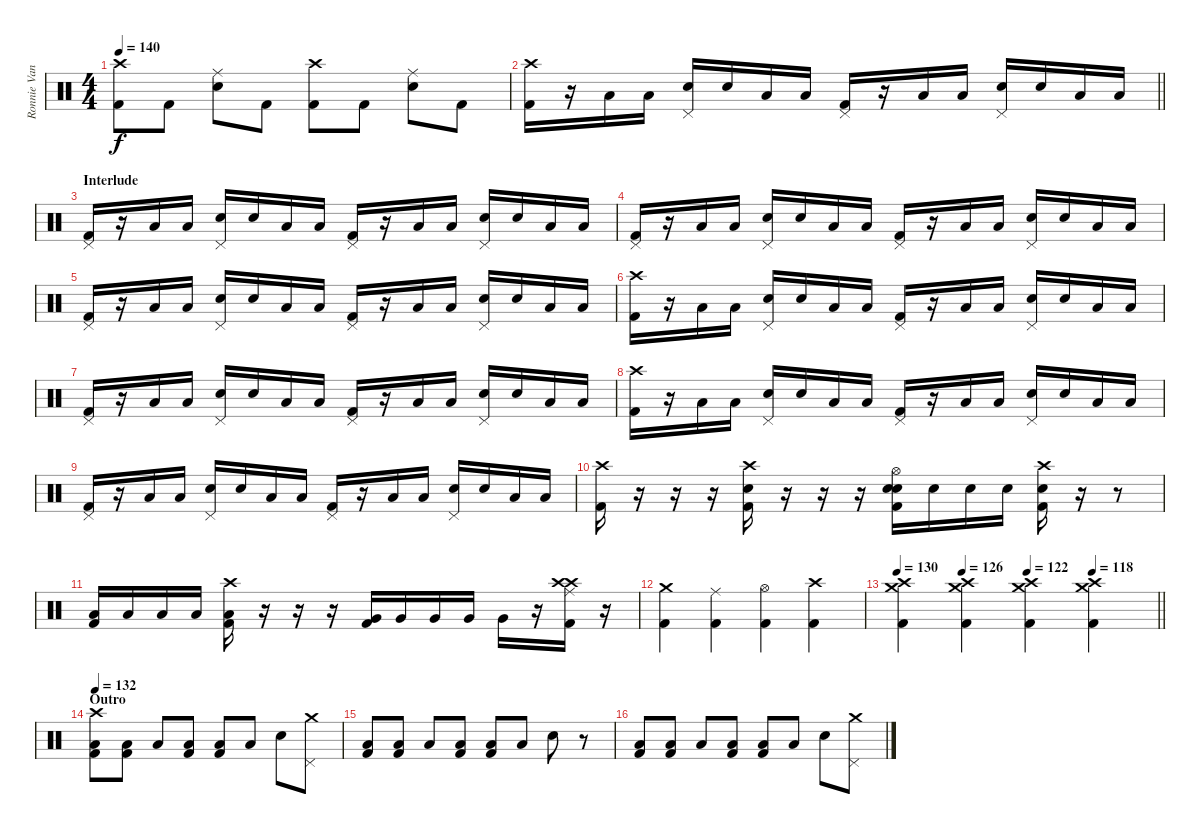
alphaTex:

\track ("Ronnie Vannucci Jr.'s drums" "Ronnie Van") {instrument percussion}
\staff {score}
\articulation defaults
\ts (4 4)
\tempo 140
\clef neutral
\ks c
("Crash high (hit)" "Kick (hit) 2").8{dy f} "Kick (hit) 2".8 ("Electric Snare (hit)" "Ride (middle)").8 "Kick (hit) 2".8 ("Crash high (hit)" "Kick (hit) 2").8 "Kick (hit) 2".8 ("Electric Snare (hit)" "Ride (middle)").8 "Kick (hit) 2".8 |
\barLineRight lightlight
("Crash high (hit)" "Kick (hit) 2").16 r.16 "Low Tom (hit)".16 "Low Tom (hit)".16 ("Pedal Hi-Hat (hit)" "Electric Snare (hit)").16 "Electric Snare (hit)".16 "Low Floor Tom (hit)".16 "Low Floor Tom (hit)".16 ("Pedal Hi-Hat (hit)" "Kick (hit) 2").16 r.16 "Low Tom (hit)".16 "Low Tom (hit)".16 ("Pedal Hi-Hat (hit)" "Electric Snare (hit)").16 "Electric Snare (hit)".16 "Low Floor Tom (hit)".16 "Low Floor Tom (hit)".16 |
\section ("" "Interlude")
("Pedal Hi-Hat (hit)" "Kick (hit) 2").16 r.16 "Low Tom (hit)".16 "Low Tom (hit)".16 ("Pedal Hi-Hat (hit)" "Electric Snare (hit)").16 "Electric Snare (hit)".16 "Low Floor Tom (hit)".16 "Low Floor Tom (hit)".16 ("Pedal Hi-Hat (hit)" "Kick (hit) 2").16 r.16 "Low Tom (hit)".16 "Low Tom (hit)".16 ("Pedal Hi-Hat (hit)" "Electric Snare (hit)").16 "Electric Snare (hit)".16 "Low Floor Tom (hit)".16 "Low Floor Tom (hit)".16 |
("Pedal Hi-Hat (hit)" "Kick (hit) 2").16 r.16 "Low Tom (hit)".16 "Low Tom (hit)".16 ("Pedal Hi-Hat (hit)" "Electric Snare (hit)").16 "Electric Snare (hit)".16 "Low Floor Tom (hit)".16 "Low Floor Tom (hit)".16 ("Pedal Hi-Hat (hit)" "Kick (hit) 2").16 r.16 "Low Tom (hit)".16 "Low Tom (hit)".16 ("Pedal Hi-Hat (hit)" "Electric Snare (hit)").16 "Electric Snare (hit)".16 "Low Floor Tom (hit)".16 "Low Floor Tom (hit)".16 |
("Pedal Hi-Hat (hit)" "Kick (hit) 2").16 r.16 "Low Tom (hit)".16 "Low Tom (hit)".16 ("Pedal Hi-Hat (hit)" "Electric Snare (hit)").16 "Electric Snare (hit)".16 "Low Floor Tom (hit)".16 "Low Floor Tom (hit)".16 ("Pedal Hi-Hat (hit)" "Kick (hit) 2").16 r.16 "Low Tom (hit)".16 "Low Tom (hit)".16 ("Pedal Hi-Hat (hit)" "Electric Snare (hit)").16 "Electric Snare (hit)".16 "Low Floor Tom (hit)".16 "Low Floor Tom (hit)".16 |
("Crash high (hit)" "Kick (hit) 2").16 r.16 "Low Tom (hit)".16 "Low Tom (hit)".16 ("Pedal Hi-Hat (hit)" "Electric Snare (hit)").16 "Electric Snare (hit)".16 "Low Floor Tom (hit)".16 "Low Floor Tom (hit)".16 ("Pedal Hi-Hat (hit)" "Kick (hit) 2").16 r.16 "Low Tom (hit)".16 "Low Tom (hit)".16 ("Pedal Hi-Hat (hit)" "Electric Snare (hit)").16 "Electric Snare (hit)".16 "Low Floor Tom (hit)".16 "Low Floor Tom (hit)".16 |
("Pedal Hi-Hat (hit)" "Kick (hit) 2").16 r.16 "Low Tom (hit)".16 "Low Tom (hit)".16 ("Pedal Hi-Hat (hit)" "Electric Snare (hit)").16 "Electric Snare (hit)".16 "Low Floor Tom (hit)".16 "Low Floor Tom (hit)".16 ("Pedal Hi-Hat (hit)" "Kick (hit) 2").16 r.16 "Low Tom (hit)".16 "Low Tom (hit)".16 ("Pedal Hi-Hat (hit)" "Electric Snare (hit)").16 "Electric Snare (hit)".16 "Low Floor Tom (hit)".16 "Low Floor Tom (hit)".16 |
("Crash high (hit)" "Kick (hit) 2").16 r.16 "Low Tom (hit)".16 "Low Tom (hit)".16 ("Pedal Hi-Hat (hit)" "Electric Snare (hit)").16 "Electric Snare (hit)".16 "Low Floor Tom (hit)".16 "Low Floor Tom (hit)".16 ("Pedal Hi-Hat (hit)" "Kick (hit) 2").16 r.16 "Low Tom (hit)".16 "Low Tom (hit)".16 ("Pedal Hi-Hat (hit)" "Electric Snare (hit)").16 "Electric Snare (hit)".16 "Low Floor Tom (hit)".16 "Low Floor Tom (hit)".16 |
("Pedal Hi-Hat (hit)" "Kick (hit) 2").16 r.16 "Low Tom (hit)".16 "Low Tom (hit)".16 ("Pedal Hi-Hat (hit)" "Electric Snare (hit)").16 "Electric Snare (hit)".16 "Low Floor Tom (hit)".16 "Low Floor Tom (hit)".16 ("Pedal Hi-Hat (hit)" "Kick (hit) 2").16 r.16 "Low Tom (hit)".16 "Low Tom (hit)".16 ("Pedal Hi-Hat (hit)" "Electric Snare (hit)").16 "Electric Snare (hit)".16 "Low Floor Tom (hit)".16 "Low Floor Tom (hit)".16 |
("Crash high (hit)" "Kick (hit) 2").16 r.16 r.16 r.16 ("Crash high (hit)" "Electric Snare (hit)" "Kick (hit) 2").16 r.16 r.16 r.16 ("Electric Snare (hit)" "Hi-Hat (open)" "Kick (hit) 2" "Electric Snare (hit)").16 "Electric Snare (hit)".16 "Electric Snare (hit)".16 "Electric Snare (hit)".16 ("Crash high (hit)" "Kick (hit) 2" "Electric Snare (hit)").16 r.16 r.8 |
("Kick (hit) 2" "Low Tom (hit)").16 "Low Tom (hit)".16 "Low Tom (hit)".16 "Low Tom (hit)".16 ("Crash high (hit)" "Kick (hit) 2" "Low Tom (hit)").16 r.16 r.16 r.16 ("Kick (hit) 2" "Very Low Tom (hit)").16 "Very Low Tom (hit)".16 "Very Low Tom (hit)".16 "Very Low Tom (hit)".16 "Very Low Tom (hit)".16 r.16 ("Crash high (hit)" "Ride (middle)" "Kick (hit) 2" "Crash high (hit)").16 r.16 |
("Kick (hit) 2" "Crash medium (hit)").4 ("Kick (hit) 2" "Ride (middle)").4 ("Kick (hit) 2" "Hi-Hat (open)").4 ("Kick (hit) 2" "Crash high (hit)").4 |
\tempo 130
\tempo (126 0.25)
\tempo (122 0.5)
\tempo (118 0.75)
\barLineRight lightlight
("Kick (hit) 2" "Crash high (hit)" "Crash medium (hit)").4 ("Kick (hit) 2" "Crash high (hit)" "Crash medium (hit)").4 ("Kick (hit) 2" "Crash high (hit)" "Crash medium (hit)").4 ("Kick (hit) 2" "Crash high (hit)" "Crash medium (hit)").4 |
\section ("" "Outro")
\tempo 132
("Crash high (hit)" "Low Floor Tom (hit)" "Kick (hit) 2").8 ("Low Floor Tom (hit)" "Kick (hit) 2").8 "Low Floor Tom (hit)".8 ("Low Floor Tom (hit)" "Kick (hit) 2").8 ("Low Floor Tom (hit)" "Kick (hit) 2").8 "Low Floor Tom (hit)".8 "Electric Snare (hit)".8 ("Crash medium (hit)" "Pedal Hi-Hat (hit)").8 |
("Low Floor Tom (hit)" "Kick (hit) 2").8 ("Low Floor Tom (hit)" "Kick (hit) 2").8 "Low Floor Tom (hit)".8 ("Low Floor Tom (hit)" "Kick (hit) 2").8 ("Low Floor Tom (hit)" "Kick (hit) 2").8 "Low Floor Tom (hit)".8 "Electric Snare (hit)".8 r.8 |
("Low Floor Tom (hit)" "Kick (hit) 2").8 ("Low Floor Tom (hit)" "Kick (hit) 2").8 "Low Floor Tom (hit)".8 ("Low Floor Tom (hit)" "Kick (hit) 2").8 ("Low Floor Tom (hit)" "Kick (hit) 2").8 "Low Floor Tom (hit)".8 "Electric Snare (hit)".8 ("Crash medium (hit)" "Pedal Hi-Hat (hit)").8
